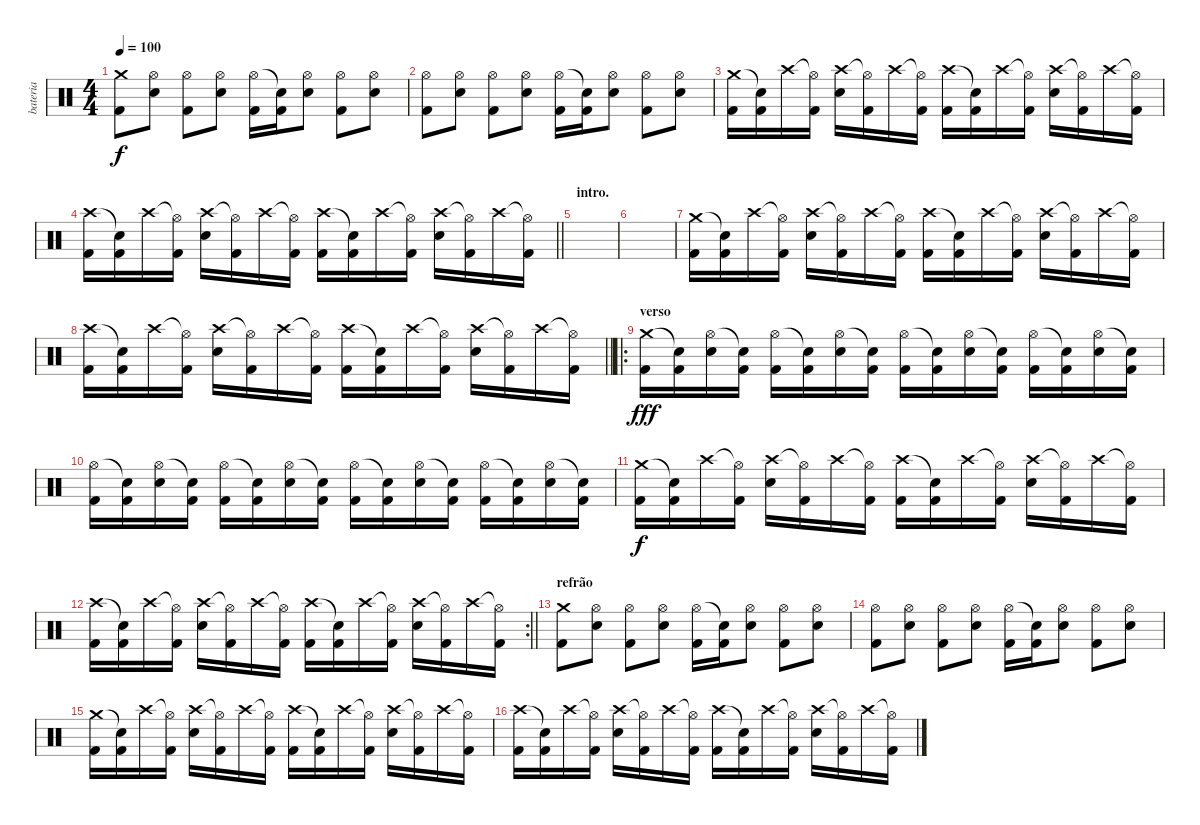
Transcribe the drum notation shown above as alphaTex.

\track ("bateria" "bateria") {instrument percussion}
\staff {score}
\articulation defaults
\ts (4 4)
\tempo 100
\clef neutral
\ks c
("Crash medium (hit)" "Kick (hit) 2").8{dy f} ("Hi-Hat (open)" "Electric Snare (hit)").8 ("Hi-Hat (open)" "Kick (hit) 2").8 ("Hi-Hat (open)" "Electric Snare (hit)").8 ("Hi-Hat (open)" "Kick (hit) 2").16 ("Snare (hit)"{t} "Kick (hit) 2").16 ("Hi-Hat (open)" "Electric Snare (hit)").8 ("Hi-Hat (open)" "Kick (hit) 2").8 ("Hi-Hat (open)" "Electric Snare (hit)").8 |
("Hi-Hat (open)" "Kick (hit) 2").8 ("Hi-Hat (open)" "Electric Snare (hit)").8 ("Hi-Hat (open)" "Kick (hit) 2").8 ("Hi-Hat (open)" "Electric Snare (hit)").8 ("Hi-Hat (open)" "Kick (hit) 2").16 ("Snare (hit)"{t} "Kick (hit) 2").16 ("Hi-Hat (open)" "Electric Snare (hit)").8 ("Hi-Hat (open)" "Kick (hit) 2").8 ("Hi-Hat (open)" "Electric Snare (hit)").8 |
("Crash medium (hit)" "Kick (hit) 2").16 ("Snare (hit)"{t} "Kick (hit) 2").16 "Crash high (hit)".16 ("Hi-Hat (open)"{t} "Kick (hit) 2").16 ("Crash high (hit)" "Electric Snare (hit)").16 ("Hi-Hat (open)"{t} "Kick (hit) 2").16 "Crash high (hit)".16 ("Hi-Hat (open)"{t} "Kick (hit) 2").16 ("Crash high (hit)" "Kick (hit) 2").16 ("Snare (hit)"{t} "Kick (hit) 2").16 "Crash high (hit)".16 ("Hi-Hat (open)"{t} "Kick (hit) 2").16 ("Crash high (hit)" "Electric Snare (hit)").16 ("Hi-Hat (open)"{t} "Kick (hit) 2").16 "Crash high (hit)".16 ("Hi-Hat (open)"{t} "Kick (hit) 2").16 |
\barLineRight lightlight
("Crash high (hit)" "Kick (hit) 2").16 ("Snare (hit)"{t} "Kick (hit) 2").16 "Crash high (hit)".16 ("Hi-Hat (open)"{t} "Kick (hit) 2").16 ("Crash high (hit)" "Electric Snare (hit)").16 ("Hi-Hat (open)"{t} "Kick (hit) 2").16 "Crash high (hit)".16 ("Hi-Hat (open)"{t} "Kick (hit) 2").16 ("Crash high (hit)" "Kick (hit) 2").16 ("Snare (hit)"{t} "Kick (hit) 2").16 "Crash high (hit)".16 ("Hi-Hat (open)"{t} "Kick (hit) 2").16 ("Crash high (hit)" "Electric Snare (hit)").16 ("Hi-Hat (open)"{t} "Kick (hit) 2").16 "Crash high (hit)".16 ("Hi-Hat (open)"{t} "Kick (hit) 2").16 |
\section ("" "intro.")
|
|
("Crash medium (hit)" "Kick (hit) 2").16 ("Snare (hit)"{t} "Kick (hit) 2").16 "Crash high (hit)".16 ("Hi-Hat (open)"{t} "Kick (hit) 2").16 ("Crash high (hit)" "Electric Snare (hit)").16 ("Hi-Hat (open)"{t} "Kick (hit) 2").16 "Crash high (hit)".16 ("Hi-Hat (open)"{t} "Kick (hit) 2").16 ("Crash high (hit)" "Kick (hit) 2").16 ("Snare (hit)"{t} "Kick (hit) 2").16 "Crash high (hit)".16 ("Hi-Hat (open)"{t} "Kick (hit) 2").16 ("Crash high (hit)" "Electric Snare (hit)").16 ("Hi-Hat (open)"{t} "Kick (hit) 2").16 "Crash high (hit)".16 ("Hi-Hat (open)"{t} "Kick (hit) 2").16 |
\barLineRight lightlight
("Crash high (hit)" "Kick (hit) 2").16 ("Snare (hit)"{t} "Kick (hit) 2").16 "Crash high (hit)".16 ("Hi-Hat (open)"{t} "Kick (hit) 2").16 ("Crash high (hit)" "Electric Snare (hit)").16 ("Hi-Hat (open)"{t} "Kick (hit) 2").16 "Crash high (hit)".16 ("Hi-Hat (open)"{t} "Kick (hit) 2").16 ("Crash high (hit)" "Kick (hit) 2").16 ("Snare (hit)"{t} "Kick (hit) 2").16 "Crash high (hit)".16 ("Hi-Hat (open)"{t} "Kick (hit) 2").16 ("Crash high (hit)" "Electric Snare (hit)").16 ("Hi-Hat (open)"{t} "Kick (hit) 2").16 "Crash high (hit)".16 ("Hi-Hat (open)"{t} "Kick (hit) 2").16 |
\ro
\section ("" "verso")
("Crash medium (hit)" "Kick (hit) 2").16{dy fff} ("Snare (hit)"{t} "Kick (hit) 2").16 ("Hi-Hat (open)" "Electric Snare (hit)").16 ("Snare (hit)"{t} "Kick (hit) 2").16 ("Hi-Hat (open)" "Kick (hit) 2").16 ("Snare (hit)"{t} "Kick (hit) 2").16 ("Hi-Hat (open)" "Electric Snare (hit)").16 ("Snare (hit)"{t} "Kick (hit) 2").16 ("Hi-Hat (open)" "Kick (hit) 2").16 ("Snare (hit)"{t} "Kick (hit) 2").16 ("Hi-Hat (open)" "Electric Snare (hit)").16 ("Snare (hit)"{t} "Kick (hit) 2").16 ("Hi-Hat (open)" "Kick (hit) 2").16 ("Snare (hit)"{t} "Kick (hit) 2").16 ("Hi-Hat (open)" "Electric Snare (hit)").16 ("Snare (hit)"{t} "Kick (hit) 2").16 |
("Hi-Hat (open)" "Kick (hit) 2").16 ("Snare (hit)"{t} "Kick (hit) 2").16 ("Hi-Hat (open)" "Electric Snare (hit)").16 ("Snare (hit)"{t} "Kick (hit) 2").16 ("Hi-Hat (open)" "Kick (hit) 2").16 ("Snare (hit)"{t} "Kick (hit) 2").16 ("Hi-Hat (open)" "Electric Snare (hit)").16 ("Snare (hit)"{t} "Kick (hit) 2").16 ("Hi-Hat (open)" "Kick (hit) 2").16 ("Snare (hit)"{t} "Kick (hit) 2").16 ("Hi-Hat (open)" "Electric Snare (hit)").16 ("Snare (hit)"{t} "Kick (hit) 2").16 ("Hi-Hat (open)" "Kick (hit) 2").16 ("Snare (hit)"{t} "Kick (hit) 2").16 ("Hi-Hat (open)" "Electric Snare (hit)").16 ("Snare (hit)"{t} "Kick (hit) 2").16 |
("Crash medium (hit)" "Kick (hit) 2").16{dy f} ("Snare (hit)"{t} "Kick (hit) 2").16 "Crash high (hit)".16 ("Hi-Hat (open)"{t} "Kick (hit) 2").16 ("Crash high (hit)" "Electric Snare (hit)").16 ("Hi-Hat (open)"{t} "Kick (hit) 2").16 "Crash high (hit)".16 ("Hi-Hat (open)"{t} "Kick (hit) 2").16 ("Crash high (hit)" "Kick (hit) 2").16 ("Snare (hit)"{t} "Kick (hit) 2").16 "Crash high (hit)".16 ("Hi-Hat (open)"{t} "Kick (hit) 2").16 ("Crash high (hit)" "Electric Snare (hit)").16 ("Hi-Hat (open)"{t} "Kick (hit) 2").16 "Crash high (hit)".16 ("Hi-Hat (open)"{t} "Kick (hit) 2").16 |
\rc 2
\barLineRight lightlight
("Crash high (hit)" "Kick (hit) 2").16 ("Snare (hit)"{t} "Kick (hit) 2").16 "Crash high (hit)".16 ("Hi-Hat (open)"{t} "Kick (hit) 2").16 ("Crash high (hit)" "Electric Snare (hit)").16 ("Hi-Hat (open)"{t} "Kick (hit) 2").16 "Crash high (hit)".16 ("Hi-Hat (open)"{t} "Kick (hit) 2").16 ("Crash high (hit)" "Kick (hit) 2").16 ("Snare (hit)"{t} "Kick (hit) 2").16 "Crash high (hit)".16 ("Hi-Hat (open)"{t} "Kick (hit) 2").16 ("Crash high (hit)" "Electric Snare (hit)").16 ("Hi-Hat (open)"{t} "Kick (hit) 2").16 "Crash high (hit)".16 ("Hi-Hat (open)"{t} "Kick (hit) 2").16 |
\section ("" "refrão")
("Crash medium (hit)" "Kick (hit) 2").8 ("Hi-Hat (open)" "Electric Snare (hit)").8 ("Hi-Hat (open)" "Kick (hit) 2").8 ("Hi-Hat (open)" "Electric Snare (hit)").8 ("Hi-Hat (open)" "Kick (hit) 2").16 ("Snare (hit)"{t} "Kick (hit) 2").16 ("Hi-Hat (open)" "Electric Snare (hit)").8 ("Hi-Hat (open)" "Kick (hit) 2").8 ("Hi-Hat (open)" "Electric Snare (hit)").8 |
("Hi-Hat (open)" "Kick (hit) 2").8 ("Hi-Hat (open)" "Electric Snare (hit)").8 ("Hi-Hat (open)" "Kick (hit) 2").8 ("Hi-Hat (open)" "Electric Snare (hit)").8 ("Hi-Hat (open)" "Kick (hit) 2").16 ("Snare (hit)"{t} "Kick (hit) 2").16 ("Hi-Hat (open)" "Electric Snare (hit)").8 ("Hi-Hat (open)" "Kick (hit) 2").8 ("Hi-Hat (open)" "Electric Snare (hit)").8 |
("Crash medium (hit)" "Kick (hit) 2").16 ("Snare (hit)"{t} "Kick (hit) 2").16 "Crash high (hit)".16 ("Hi-Hat (open)"{t} "Kick (hit) 2").16 ("Crash high (hit)" "Electric Snare (hit)").16 ("Hi-Hat (open)"{t} "Kick (hit) 2").16 "Crash high (hit)".16 ("Hi-Hat (open)"{t} "Kick (hit) 2").16 ("Crash high (hit)" "Kick (hit) 2").16 ("Snare (hit)"{t} "Kick (hit) 2").16 "Crash high (hit)".16 ("Hi-Hat (open)"{t} "Kick (hit) 2").16 ("Crash high (hit)" "Electric Snare (hit)").16 ("Hi-Hat (open)"{t} "Kick (hit) 2").16 "Crash high (hit)".16 ("Hi-Hat (open)"{t} "Kick (hit) 2").16 |
("Crash high (hit)" "Kick (hit) 2").16 ("Snare (hit)"{t} "Kick (hit) 2").16 "Crash high (hit)".16 ("Hi-Hat (open)"{t} "Kick (hit) 2").16 ("Crash high (hit)" "Electric Snare (hit)").16 ("Hi-Hat (open)"{t} "Kick (hit) 2").16 "Crash high (hit)".16 ("Hi-Hat (open)"{t} "Kick (hit) 2").16 ("Crash high (hit)" "Kick (hit) 2").16 ("Snare (hit)"{t} "Kick (hit) 2").16 "Crash high (hit)".16 ("Hi-Hat (open)"{t} "Kick (hit) 2").16 ("Crash high (hit)" "Electric Snare (hit)").16 ("Hi-Hat (open)"{t} "Kick (hit) 2").16 "Crash high (hit)".16 ("Hi-Hat (open)"{t} "Kick (hit) 2").16
